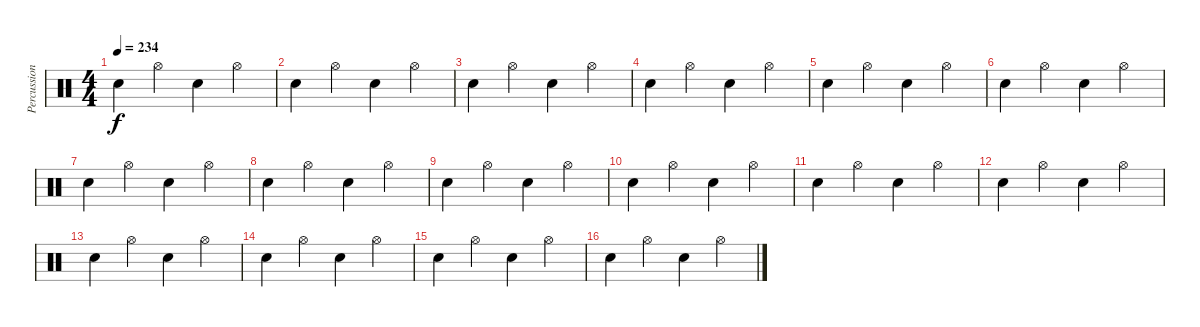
\track ("Percussion" "Percussion") {instrument percussion}
\staff {score}
\articulation defaults
\ts (4 4)
\tempo 234
\clef neutral
\ks c "Snare (hit) 2".4{dy f} "Hi-Hat (open)".4 "Snare (hit) 2".4 "Hi-Hat (open)".4
|
"Snare (hit) 2".4 "Hi-Hat (open)".4 "Snare (hit) 2".4 "Hi-Hat (open)".4 |
"Snare (hit) 2".4 "Hi-Hat (open)".4 "Snare (hit) 2".4 "Hi-Hat (open)".4 |
"Snare (hit) 2".4 "Hi-Hat (open)".4 "Snare (hit) 2".4 "Hi-Hat (open)".4 |
"Snare (hit) 2".4 "Hi-Hat (open)".4 "Snare (hit) 2".4 "Hi-Hat (open)".4 |
"Snare (hit) 2".4 "Hi-Hat (open)".4 "Snare (hit) 2".4 "Hi-Hat (open)".4 |
"Snare (hit) 2".4 "Hi-Hat (open)".4 "Snare (hit) 2".4 "Hi-Hat (open)".4 |
"Snare (hit) 2".4 "Hi-Hat (open)".4 "Snare (hit) 2".4 "Hi-Hat (open)".4 |
"Snare (hit) 2".4 "Hi-Hat (open)".4 "Snare (hit) 2".4 "Hi-Hat (open)".4 |
"Snare (hit) 2".4 "Hi-Hat (open)".4 "Snare (hit) 2".4 "Hi-Hat (open)".4 |
"Snare (hit) 2".4 "Hi-Hat (open)".4 "Snare (hit) 2".4 "Hi-Hat (open)".4 |
"Snare (hit) 2".4 "Hi-Hat (open)".4 "Snare (hit) 2".4 "Hi-Hat (open)".4 |
"Snare (hit) 2".4 "Hi-Hat (open)".4 "Snare (hit) 2".4 "Hi-Hat (open)".4 |
"Snare (hit) 2".4 "Hi-Hat (open)".4 "Snare (hit) 2".4 "Hi-Hat (open)".4 |
"Snare (hit) 2".4 "Hi-Hat (open)".4 "Snare (hit) 2".4 "Hi-Hat (open)".4 |
"Snare (hit) 2".4 "Hi-Hat (open)".4 "Snare (hit) 2".4 "Hi-Hat (open)".4
